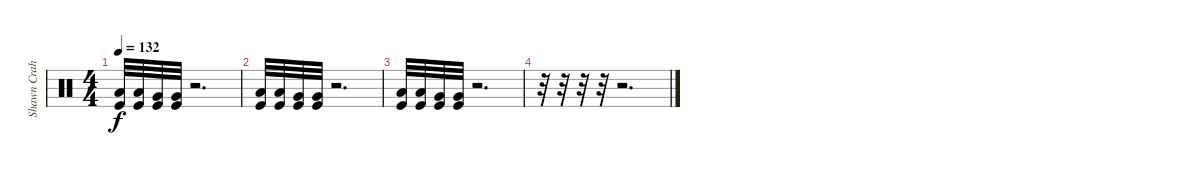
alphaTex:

\track ("Shawn Crahan" "Shawn Crah") {instrument percussion}
\staff {score}
\articulation defaults
\ts (4 4)
\tempo 132
\clef neutral
\ks c
("Kick (hit)" "Low Tom (hit)").32{dy f} ("Kick (hit)" "Low Tom (hit)").32 ("Kick (hit)" "Very Low Tom (hit)").32 ("Kick (hit)" "Very Low Tom (hit)").32 r.2{d} |
("Kick (hit)" "Low Tom (hit)").32 ("Kick (hit)" "Low Tom (hit)").32 ("Kick (hit)" "Very Low Tom (hit)").32 ("Kick (hit)" "Very Low Tom (hit)").32 r.2{d} |
("Kick (hit)" "Low Tom (hit)").32 ("Kick (hit)" "Low Tom (hit)").32 ("Kick (hit)" "Very Low Tom (hit)").32 ("Kick (hit)" "Very Low Tom (hit)").32 r.2{d} |
r.32 r.32 r.32 r.32 r.2{d}
